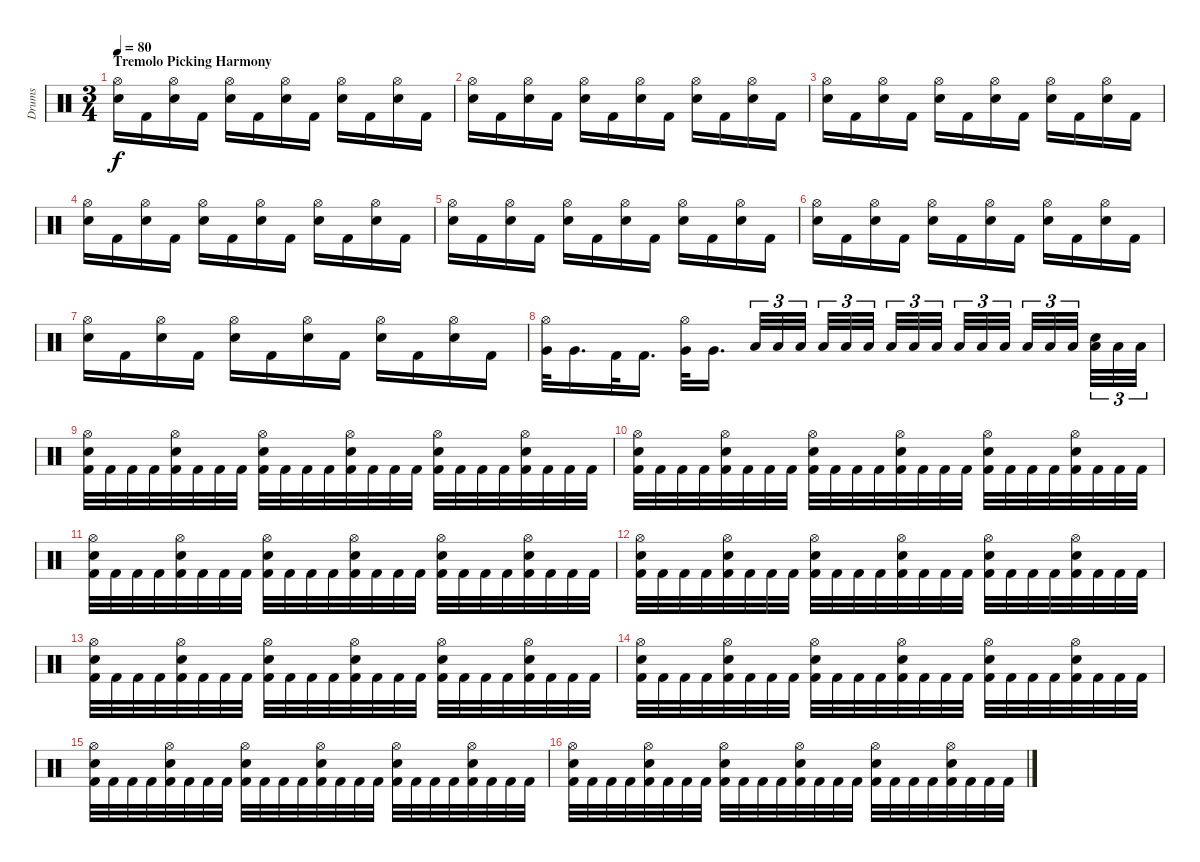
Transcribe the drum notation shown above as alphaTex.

\track ("Drums" "Drums") {instrument percussion}
\staff {score}
\articulation defaults
\ts (3 4)
\section ("" "Tremolo Picking Harmony")
\tempo 80
\clef neutral
\ks c
("Hi-Hat (open)" "Electric Snare (hit)").16{dy f} "Kick (hit) 2".16 ("Hi-Hat (open)" "Electric Snare (hit)").16 "Kick (hit) 2".16 ("Hi-Hat (open)" "Electric Snare (hit)").16 "Kick (hit) 2".16 ("Hi-Hat (open)" "Electric Snare (hit)").16 "Kick (hit) 2".16 ("Hi-Hat (open)" "Electric Snare (hit)").16 "Kick (hit) 2".16 ("Hi-Hat (open)" "Electric Snare (hit)").16 "Kick (hit) 2".16 |
("Hi-Hat (open)" "Electric Snare (hit)").16 "Kick (hit) 2".16 ("Hi-Hat (open)" "Electric Snare (hit)").16 "Kick (hit) 2".16 ("Hi-Hat (open)" "Electric Snare (hit)").16 "Kick (hit) 2".16 ("Hi-Hat (open)" "Electric Snare (hit)").16 "Kick (hit) 2".16 ("Hi-Hat (open)" "Electric Snare (hit)").16 "Kick (hit) 2".16 ("Hi-Hat (open)" "Electric Snare (hit)").16 "Kick (hit) 2".16 |
("Hi-Hat (open)" "Electric Snare (hit)").16 "Kick (hit) 2".16 ("Hi-Hat (open)" "Electric Snare (hit)").16 "Kick (hit) 2".16 ("Hi-Hat (open)" "Electric Snare (hit)").16 "Kick (hit) 2".16 ("Hi-Hat (open)" "Electric Snare (hit)").16 "Kick (hit) 2".16 ("Hi-Hat (open)" "Electric Snare (hit)").16 "Kick (hit) 2".16 ("Hi-Hat (open)" "Electric Snare (hit)").16 "Kick (hit) 2".16 |
("Hi-Hat (open)" "Electric Snare (hit)").16 "Kick (hit) 2".16 ("Hi-Hat (open)" "Electric Snare (hit)").16 "Kick (hit) 2".16 ("Hi-Hat (open)" "Electric Snare (hit)").16 "Kick (hit) 2".16 ("Hi-Hat (open)" "Electric Snare (hit)").16 "Kick (hit) 2".16 ("Hi-Hat (open)" "Electric Snare (hit)").16 "Kick (hit) 2".16 ("Hi-Hat (open)" "Electric Snare (hit)").16 "Kick (hit) 2".16 |
("Hi-Hat (open)" "Electric Snare (hit)").16 "Kick (hit) 2".16 ("Hi-Hat (open)" "Electric Snare (hit)").16 "Kick (hit) 2".16 ("Hi-Hat (open)" "Electric Snare (hit)").16 "Kick (hit) 2".16 ("Hi-Hat (open)" "Electric Snare (hit)").16 "Kick (hit) 2".16 ("Hi-Hat (open)" "Electric Snare (hit)").16 "Kick (hit) 2".16 ("Hi-Hat (open)" "Electric Snare (hit)").16 "Kick (hit) 2".16 |
("Hi-Hat (open)" "Electric Snare (hit)").16 "Kick (hit) 2".16 ("Hi-Hat (open)" "Electric Snare (hit)").16 "Kick (hit) 2".16 ("Hi-Hat (open)" "Electric Snare (hit)").16 "Kick (hit) 2".16 ("Hi-Hat (open)" "Electric Snare (hit)").16 "Kick (hit) 2".16 ("Hi-Hat (open)" "Electric Snare (hit)").16 "Kick (hit) 2".16 ("Hi-Hat (open)" "Electric Snare (hit)").16 "Kick (hit) 2".16 |
("Hi-Hat (open)" "Electric Snare (hit)").16 "Kick (hit) 2".16 ("Hi-Hat (open)" "Electric Snare (hit)").16 "Kick (hit) 2".16 ("Hi-Hat (open)" "Electric Snare (hit)").16 "Kick (hit) 2".16 ("Hi-Hat (open)" "Electric Snare (hit)").16 "Kick (hit) 2".16 ("Hi-Hat (open)" "Electric Snare (hit)").16 "Kick (hit) 2".16 ("Hi-Hat (open)" "Electric Snare (hit)").16 "Kick (hit) 2".16 |
("Hi-Hat (open)" "Very Low Tom (hit)").32 "Very Low Tom (hit)".16{d} "Kick (hit) 2".32 "Kick (hit) 2".16{d} ("Hi-Hat (open)" "Very Low Tom (hit)").32 "Very Low Tom (hit)".16{d beam splitsecondary} "Low Floor Tom (hit)".32{tu (3 2)} "Low Floor Tom (hit)".32{tu (3 2)} "Low Floor Tom (hit)".32{tu (3 2) beam splitsecondary} "Low Floor Tom (hit)".32{tu (3 2)} "Low Floor Tom (hit)".32{tu (3 2)} "Low Floor Tom (hit)".32{tu (3 2)} "Low Floor Tom (hit)".32{tu (3 2)} "Low Floor Tom (hit)".32{tu (3 2)} "Low Floor Tom (hit)".32{tu (3 2) beam splitsecondary} "Low Floor Tom (hit)".32{tu (3 2)} "Low Floor Tom (hit)".32{tu (3 2)} "Low Floor Tom (hit)".32{tu (3 2) beam splitsecondary} "Low Floor Tom (hit)".32{tu (3 2)} "Low Floor Tom (hit)".32{tu (3 2)} "Low Floor Tom (hit)".32{tu (3 2) beam splitsecondary} ("Low Floor Tom (hit)" "Electric Snare (hit)").32{tu (3 2)} "Low Floor Tom (hit)".32{tu (3 2)} "Low Floor Tom (hit)".32{tu (3 2)} |
("Hi-Hat (open)" "Electric Snare (hit)" "Kick (hit) 2").32 "Kick (hit) 2".32 "Kick (hit) 2".32 "Kick (hit) 2".32 ("Hi-Hat (open)" "Electric Snare (hit)" "Kick (hit) 2").32 "Kick (hit) 2".32 "Kick (hit) 2".32 "Kick (hit) 2".32 ("Hi-Hat (open)" "Electric Snare (hit)" "Kick (hit) 2").32 "Kick (hit) 2".32 "Kick (hit) 2".32 "Kick (hit) 2".32 ("Hi-Hat (open)" "Electric Snare (hit)" "Kick (hit) 2").32 "Kick (hit) 2".32 "Kick (hit) 2".32 "Kick (hit) 2".32 ("Hi-Hat (open)" "Electric Snare (hit)" "Kick (hit) 2").32 "Kick (hit) 2".32 "Kick (hit) 2".32 "Kick (hit) 2".32 ("Hi-Hat (open)" "Electric Snare (hit)" "Kick (hit) 2").32 "Kick (hit) 2".32 "Kick (hit) 2".32 "Kick (hit) 2".32 |
("Hi-Hat (open)" "Electric Snare (hit)" "Kick (hit) 2").32 "Kick (hit) 2".32 "Kick (hit) 2".32 "Kick (hit) 2".32 ("Hi-Hat (open)" "Electric Snare (hit)" "Kick (hit) 2").32 "Kick (hit) 2".32 "Kick (hit) 2".32 "Kick (hit) 2".32 ("Hi-Hat (open)" "Electric Snare (hit)" "Kick (hit) 2").32 "Kick (hit) 2".32 "Kick (hit) 2".32 "Kick (hit) 2".32 ("Hi-Hat (open)" "Electric Snare (hit)" "Kick (hit) 2").32 "Kick (hit) 2".32 "Kick (hit) 2".32 "Kick (hit) 2".32 ("Hi-Hat (open)" "Electric Snare (hit)" "Kick (hit) 2").32 "Kick (hit) 2".32 "Kick (hit) 2".32 "Kick (hit) 2".32 ("Hi-Hat (open)" "Electric Snare (hit)" "Kick (hit) 2").32 "Kick (hit) 2".32 "Kick (hit) 2".32 "Kick (hit) 2".32 |
("Hi-Hat (open)" "Electric Snare (hit)" "Kick (hit) 2").32 "Kick (hit) 2".32 "Kick (hit) 2".32 "Kick (hit) 2".32 ("Hi-Hat (open)" "Electric Snare (hit)" "Kick (hit) 2").32 "Kick (hit) 2".32 "Kick (hit) 2".32 "Kick (hit) 2".32 ("Hi-Hat (open)" "Electric Snare (hit)" "Kick (hit) 2").32 "Kick (hit) 2".32 "Kick (hit) 2".32 "Kick (hit) 2".32 ("Hi-Hat (open)" "Electric Snare (hit)" "Kick (hit) 2").32 "Kick (hit) 2".32 "Kick (hit) 2".32 "Kick (hit) 2".32 ("Hi-Hat (open)" "Electric Snare (hit)" "Kick (hit) 2").32 "Kick (hit) 2".32 "Kick (hit) 2".32 "Kick (hit) 2".32 ("Hi-Hat (open)" "Electric Snare (hit)" "Kick (hit) 2").32 "Kick (hit) 2".32 "Kick (hit) 2".32 "Kick (hit) 2".32 |
("Hi-Hat (open)" "Electric Snare (hit)" "Kick (hit) 2").32 "Kick (hit) 2".32 "Kick (hit) 2".32 "Kick (hit) 2".32 ("Hi-Hat (open)" "Electric Snare (hit)" "Kick (hit) 2").32 "Kick (hit) 2".32 "Kick (hit) 2".32 "Kick (hit) 2".32 ("Hi-Hat (open)" "Electric Snare (hit)" "Kick (hit) 2").32 "Kick (hit) 2".32 "Kick (hit) 2".32 "Kick (hit) 2".32 ("Hi-Hat (open)" "Electric Snare (hit)" "Kick (hit) 2").32 "Kick (hit) 2".32 "Kick (hit) 2".32 "Kick (hit) 2".32 ("Hi-Hat (open)" "Electric Snare (hit)" "Kick (hit) 2").32 "Kick (hit) 2".32 "Kick (hit) 2".32 "Kick (hit) 2".32 ("Hi-Hat (open)" "Electric Snare (hit)" "Kick (hit) 2").32 "Kick (hit) 2".32 "Kick (hit) 2".32 "Kick (hit) 2".32 |
("Hi-Hat (open)" "Electric Snare (hit)" "Kick (hit) 2").32 "Kick (hit) 2".32 "Kick (hit) 2".32 "Kick (hit) 2".32 ("Hi-Hat (open)" "Electric Snare (hit)" "Kick (hit) 2").32 "Kick (hit) 2".32 "Kick (hit) 2".32 "Kick (hit) 2".32 ("Hi-Hat (open)" "Electric Snare (hit)" "Kick (hit) 2").32 "Kick (hit) 2".32 "Kick (hit) 2".32 "Kick (hit) 2".32 ("Hi-Hat (open)" "Electric Snare (hit)" "Kick (hit) 2").32 "Kick (hit) 2".32 "Kick (hit) 2".32 "Kick (hit) 2".32 ("Hi-Hat (open)" "Electric Snare (hit)" "Kick (hit) 2").32 "Kick (hit) 2".32 "Kick (hit) 2".32 "Kick (hit) 2".32 ("Hi-Hat (open)" "Electric Snare (hit)" "Kick (hit) 2").32 "Kick (hit) 2".32 "Kick (hit) 2".32 "Kick (hit) 2".32 |
("Hi-Hat (open)" "Electric Snare (hit)" "Kick (hit) 2").32 "Kick (hit) 2".32 "Kick (hit) 2".32 "Kick (hit) 2".32 ("Hi-Hat (open)" "Electric Snare (hit)" "Kick (hit) 2").32 "Kick (hit) 2".32 "Kick (hit) 2".32 "Kick (hit) 2".32 ("Hi-Hat (open)" "Electric Snare (hit)" "Kick (hit) 2").32 "Kick (hit) 2".32 "Kick (hit) 2".32 "Kick (hit) 2".32 ("Hi-Hat (open)" "Electric Snare (hit)" "Kick (hit) 2").32 "Kick (hit) 2".32 "Kick (hit) 2".32 "Kick (hit) 2".32 ("Hi-Hat (open)" "Electric Snare (hit)" "Kick (hit) 2").32 "Kick (hit) 2".32 "Kick (hit) 2".32 "Kick (hit) 2".32 ("Hi-Hat (open)" "Electric Snare (hit)" "Kick (hit) 2").32 "Kick (hit) 2".32 "Kick (hit) 2".32 "Kick (hit) 2".32 |
("Hi-Hat (open)" "Electric Snare (hit)" "Kick (hit) 2").32 "Kick (hit) 2".32 "Kick (hit) 2".32 "Kick (hit) 2".32 ("Hi-Hat (open)" "Electric Snare (hit)" "Kick (hit) 2").32 "Kick (hit) 2".32 "Kick (hit) 2".32 "Kick (hit) 2".32 ("Hi-Hat (open)" "Electric Snare (hit)" "Kick (hit) 2").32 "Kick (hit) 2".32 "Kick (hit) 2".32 "Kick (hit) 2".32 ("Hi-Hat (open)" "Electric Snare (hit)" "Kick (hit) 2").32 "Kick (hit) 2".32 "Kick (hit) 2".32 "Kick (hit) 2".32 ("Hi-Hat (open)" "Electric Snare (hit)" "Kick (hit) 2").32 "Kick (hit) 2".32 "Kick (hit) 2".32 "Kick (hit) 2".32 ("Hi-Hat (open)" "Electric Snare (hit)" "Kick (hit) 2").32 "Kick (hit) 2".32 "Kick (hit) 2".32 "Kick (hit) 2".32 |
("Hi-Hat (open)" "Electric Snare (hit)" "Kick (hit) 2").32 "Kick (hit) 2".32 "Kick (hit) 2".32 "Kick (hit) 2".32 ("Hi-Hat (open)" "Electric Snare (hit)" "Kick (hit) 2").32 "Kick (hit) 2".32 "Kick (hit) 2".32 "Kick (hit) 2".32 ("Hi-Hat (open)" "Electric Snare (hit)" "Kick (hit) 2").32 "Kick (hit) 2".32 "Kick (hit) 2".32 "Kick (hit) 2".32 ("Hi-Hat (open)" "Electric Snare (hit)" "Kick (hit) 2").32 "Kick (hit) 2".32 "Kick (hit) 2".32 "Kick (hit) 2".32 ("Hi-Hat (open)" "Electric Snare (hit)" "Kick (hit) 2").32 "Kick (hit) 2".32 "Kick (hit) 2".32 "Kick (hit) 2".32 ("Hi-Hat (open)" "Electric Snare (hit)" "Kick (hit) 2").32 "Kick (hit) 2".32 "Kick (hit) 2".32 "Kick (hit) 2".32
